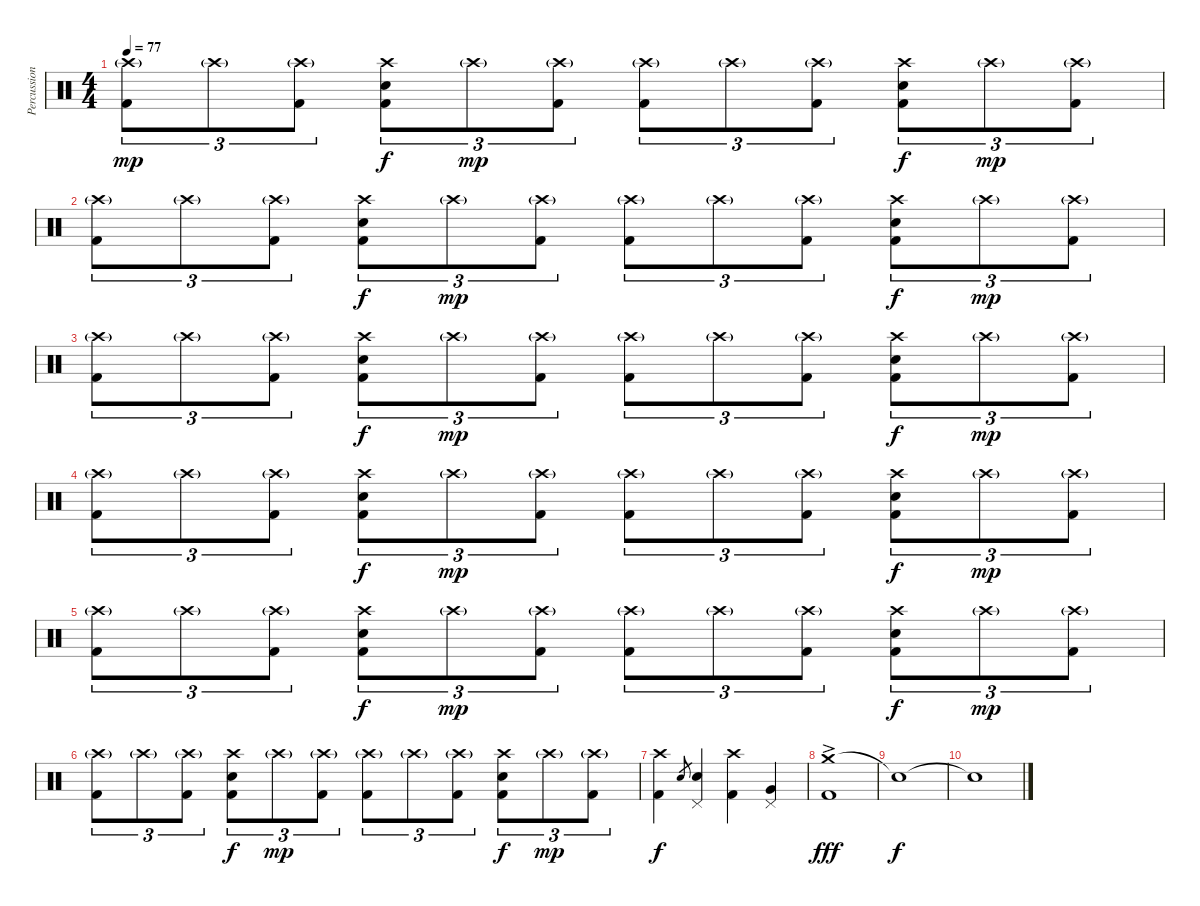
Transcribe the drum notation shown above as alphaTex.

\track ("Percussion" "Percussion") {instrument percussion}
\staff {score}
\articulation defaults
\ts (4 4)
\tempo 77
\clef neutral
\ks c
("Crash high (hit)"{g} "Kick (hit) 2").8{tu (3 2) dy mp} "Crash high (hit)"{g}.8{tu (3 2)} ("Crash high (hit)"{g} "Kick (hit) 2").8{tu (3 2)} ("Crash high (hit)" "Snare (hit) 2" "Kick (hit) 2").8{tu (3 2) dy f} "Crash high (hit)"{g}.8{tu (3 2) dy mp} ("Crash high (hit)"{g} "Kick (hit) 2").8{tu (3 2)} ("Crash high (hit)"{g} "Kick (hit) 2").8{tu (3 2)} "Crash high (hit)"{g}.8{tu (3 2)} ("Crash high (hit)"{g} "Kick (hit) 2").8{tu (3 2)} ("Crash high (hit)" "Snare (hit) 2" "Kick (hit) 2").8{tu (3 2) dy f} "Crash high (hit)"{g}.8{tu (3 2) dy mp} ("Crash high (hit)"{g} "Kick (hit) 2").8{tu (3 2)} |
("Crash high (hit)"{g} "Kick (hit) 2").8{tu (3 2)} "Crash high (hit)"{g}.8{tu (3 2)} ("Crash high (hit)"{g} "Kick (hit) 2").8{tu (3 2)} ("Crash high (hit)" "Snare (hit) 2" "Kick (hit) 2").8{tu (3 2) dy f} "Crash high (hit)"{g}.8{tu (3 2) dy mp} ("Crash high (hit)"{g} "Kick (hit) 2").8{tu (3 2)} ("Crash high (hit)"{g} "Kick (hit) 2").8{tu (3 2)} "Crash high (hit)"{g}.8{tu (3 2)} ("Crash high (hit)"{g} "Kick (hit) 2").8{tu (3 2)} ("Crash high (hit)" "Snare (hit) 2" "Kick (hit) 2").8{tu (3 2) dy f} "Crash high (hit)"{g}.8{tu (3 2) dy mp} ("Crash high (hit)"{g} "Kick (hit) 2").8{tu (3 2)} |
("Crash high (hit)"{g} "Kick (hit) 2").8{tu (3 2)} "Crash high (hit)"{g}.8{tu (3 2)} ("Crash high (hit)"{g} "Kick (hit) 2").8{tu (3 2)} ("Crash high (hit)" "Snare (hit) 2" "Kick (hit) 2").8{tu (3 2) dy f} "Crash high (hit)"{g}.8{tu (3 2) dy mp} ("Crash high (hit)"{g} "Kick (hit) 2").8{tu (3 2)} ("Crash high (hit)"{g} "Kick (hit) 2").8{tu (3 2)} "Crash high (hit)"{g}.8{tu (3 2)} ("Crash high (hit)"{g} "Kick (hit) 2").8{tu (3 2)} ("Crash high (hit)" "Snare (hit) 2" "Kick (hit) 2").8{tu (3 2) dy f} "Crash high (hit)"{g}.8{tu (3 2) dy mp} ("Crash high (hit)"{g} "Kick (hit) 2").8{tu (3 2)} |
("Crash high (hit)"{g} "Kick (hit) 2").8{tu (3 2)} "Crash high (hit)"{g}.8{tu (3 2)} ("Crash high (hit)"{g} "Kick (hit) 2").8{tu (3 2)} ("Crash high (hit)" "Snare (hit) 2" "Kick (hit) 2").8{tu (3 2) dy f} "Crash high (hit)"{g}.8{tu (3 2) dy mp} ("Crash high (hit)"{g} "Kick (hit) 2").8{tu (3 2)} ("Crash high (hit)"{g} "Kick (hit) 2").8{tu (3 2)} "Crash high (hit)"{g}.8{tu (3 2)} ("Crash high (hit)"{g} "Kick (hit) 2").8{tu (3 2)} ("Crash high (hit)" "Snare (hit) 2" "Kick (hit) 2").8{tu (3 2) dy f} "Crash high (hit)"{g}.8{tu (3 2) dy mp} ("Crash high (hit)"{g} "Kick (hit) 2").8{tu (3 2)} |
("Crash high (hit)"{g} "Kick (hit) 2").8{tu (3 2)} "Crash high (hit)"{g}.8{tu (3 2)} ("Crash high (hit)"{g} "Kick (hit) 2").8{tu (3 2)} ("Crash high (hit)" "Snare (hit) 2" "Kick (hit) 2").8{tu (3 2) dy f} "Crash high (hit)"{g}.8{tu (3 2) dy mp} ("Crash high (hit)"{g} "Kick (hit) 2").8{tu (3 2)} ("Crash high (hit)"{g} "Kick (hit) 2").8{tu (3 2)} "Crash high (hit)"{g}.8{tu (3 2)} ("Crash high (hit)"{g} "Kick (hit) 2").8{tu (3 2)} ("Crash high (hit)" "Snare (hit) 2" "Kick (hit) 2").8{tu (3 2) dy f} "Crash high (hit)"{g}.8{tu (3 2) dy mp} ("Crash high (hit)"{g} "Kick (hit) 2").8{tu (3 2)} |
("Crash high (hit)"{g} "Kick (hit) 2").8{tu (3 2)} "Crash high (hit)"{g}.8{tu (3 2)} ("Crash high (hit)"{g} "Kick (hit) 2").8{tu (3 2)} ("Crash high (hit)" "Snare (hit) 2" "Kick (hit) 2").8{tu (3 2) dy f} "Crash high (hit)"{g}.8{tu (3 2) dy mp} ("Crash high (hit)"{g} "Kick (hit) 2").8{tu (3 2)} ("Crash high (hit)"{g} "Kick (hit) 2").8{tu (3 2)} "Crash high (hit)"{g}.8{tu (3 2)} ("Crash high (hit)"{g} "Kick (hit) 2").8{tu (3 2)} ("Crash high (hit)" "Snare (hit) 2" "Kick (hit) 2").8{tu (3 2) dy f} "Crash high (hit)"{g}.8{tu (3 2) dy mp} ("Crash high (hit)"{g} "Kick (hit) 2").8{tu (3 2)} |
("Crash high (hit)" "Kick (hit) 2").4{dy f} "Snare (hit) 2".8{gr} ("Pedal Hi-Hat (hit)" "Snare (hit) 2").4 ("Crash high (hit)" "Kick (hit) 2").4 ("Pedal Hi-Hat (hit)" "Very Low Tom (hit)").4 |
("Crash medium (hit)"{ac} "Kick (hit) 2").1{dy fff} |
"Snare (hit)"{t}.1{dy f} |
"Snare (hit)"{t}.1
